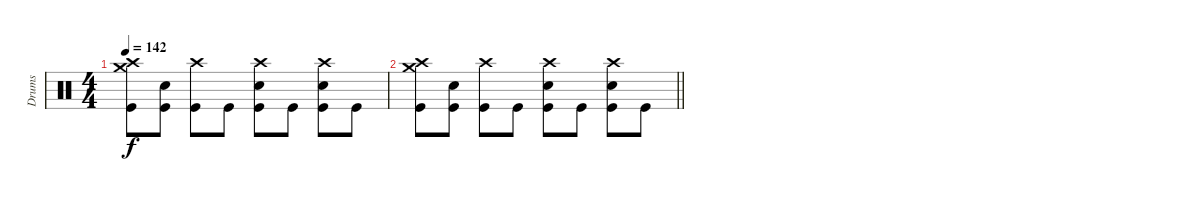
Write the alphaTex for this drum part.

\track ("Drums" "Drums") {instrument percussion}
\staff
\articulation defaults
\ts (4 4)
\tempo 142
\clef neutral
\ks c
("Crash high (hit)" "Crash medium (hit)" "Kick (hit)").8{dy f} ("Electric Snare (hit)" "Kick (hit)").8 ("Crash high (hit)" "Kick (hit)").8 "Kick (hit)".8 ("Crash high (hit)" "Electric Snare (hit)" "Kick (hit)").8 "Kick (hit)".8 ("Crash high (hit)" "Electric Snare (hit)" "Kick (hit)").8 "Kick (hit)".8 |
\barLineRight lightlight
("Crash high (hit)" "Crash medium (hit)" "Kick (hit)").8 ("Electric Snare (hit)" "Kick (hit)").8 ("Crash high (hit)" "Kick (hit)").8 "Kick (hit)".8 ("Crash high (hit)" "Electric Snare (hit)" "Kick (hit)").8 "Kick (hit)".8 ("Crash high (hit)" "Electric Snare (hit)" "Kick (hit)").8 "Kick (hit)".8
